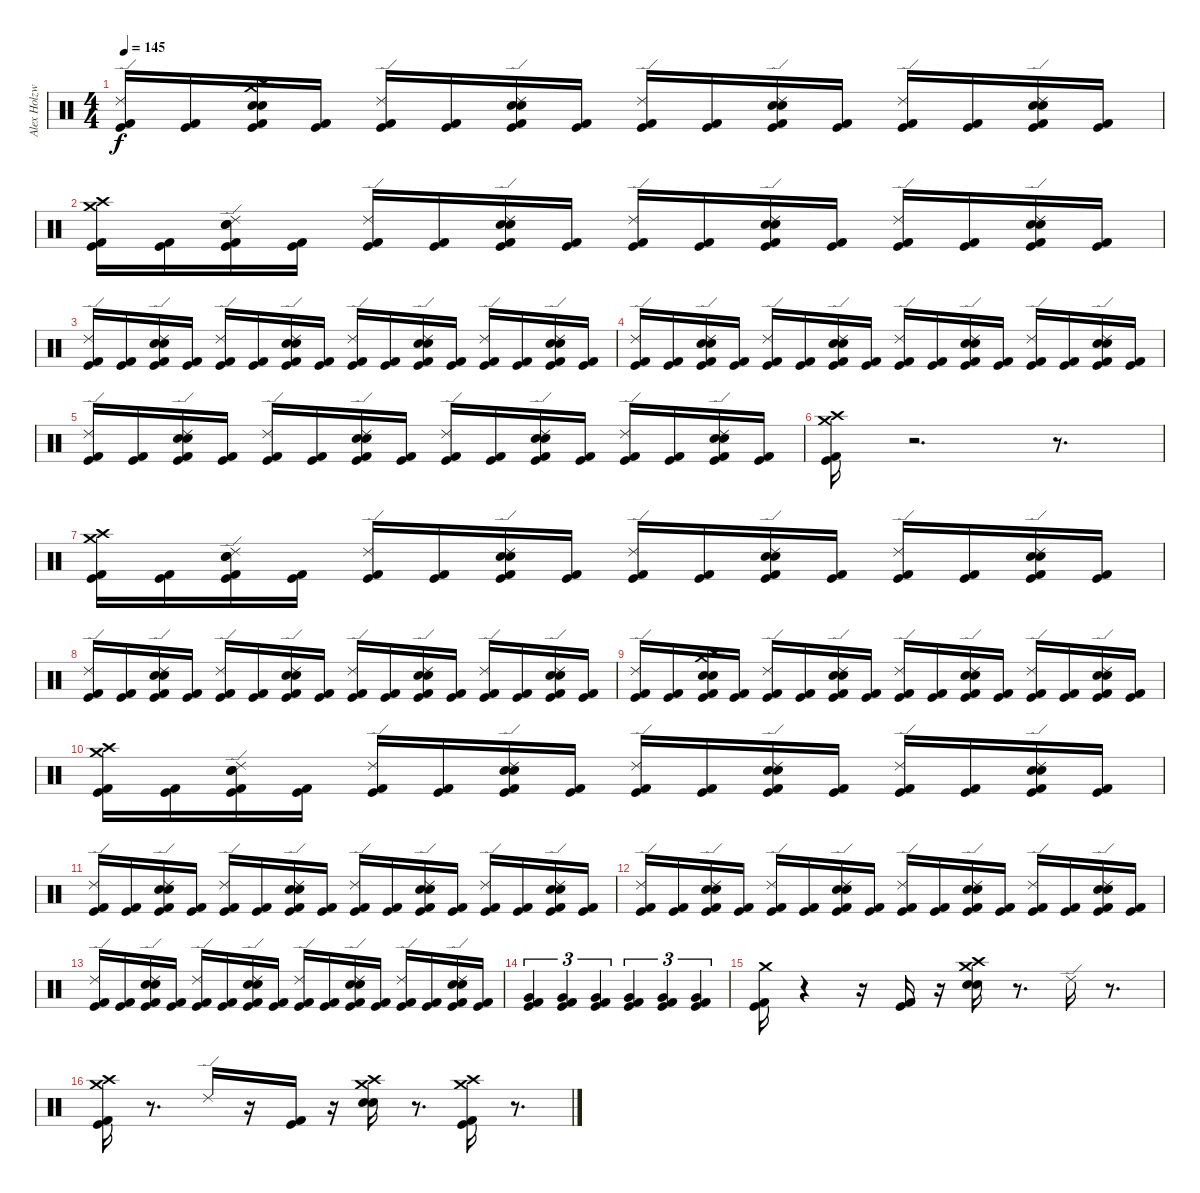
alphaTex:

\track ("Alex Holzwarth" "Alex Holzw") {instrument percussion}
\staff {score}
\articulation defaults
\ts (4 4)
\tempo 145
\clef neutral
\ks c
("Ride (edge) 2" "Kick (hit) 2" "Kick (hit)").16{dy f} ("Kick (hit) 2" "Kick (hit)").16 ("Crash high (hit)" "Crash medium (hit)" "Snare (hit) 2" "Electric Snare (hit)" "Kick (hit) 2" "Kick (hit)").16 ("Kick (hit) 2" "Kick (hit)").16 ("Ride (edge) 2" "Kick (hit) 2" "Kick (hit)").16 ("Kick (hit) 2" "Kick (hit)").16 ("Ride (edge) 2" "Snare (hit) 2" "Electric Snare (hit)" "Kick (hit) 2" "Kick (hit)").16 ("Kick (hit) 2" "Kick (hit)").16 ("Ride (edge) 2" "Kick (hit) 2" "Kick (hit)").16 ("Kick (hit) 2" "Kick (hit)").16 ("Ride (edge) 2" "Snare (hit) 2" "Electric Snare (hit)" "Kick (hit) 2" "Kick (hit)").16 ("Kick (hit) 2" "Kick (hit)").16 ("Ride (edge) 2" "Kick (hit) 2" "Kick (hit)").16 ("Kick (hit) 2" "Kick (hit)").16 ("Ride (edge) 2" "Snare (hit) 2" "Electric Snare (hit)" "Kick (hit) 2" "Kick (hit)").16 ("Kick (hit) 2" "Kick (hit)").16 |
("Crash high (hit)" "Crash medium (hit)" "Kick (hit) 2" "Kick (hit)").16 ("Kick (hit) 2" "Kick (hit)").16 ("Ride (edge) 2" "Snare (hit) 2" "Electric Snare (hit)" "Kick (hit) 2" "Kick (hit)").16 ("Kick (hit) 2" "Kick (hit)").16 ("Ride (edge) 2" "Kick (hit) 2" "Kick (hit)").16 ("Kick (hit) 2" "Kick (hit)").16 ("Ride (edge) 2" "Snare (hit) 2" "Electric Snare (hit)" "Kick (hit) 2" "Kick (hit)").16 ("Kick (hit) 2" "Kick (hit)").16 ("Ride (edge) 2" "Kick (hit) 2" "Kick (hit)").16 ("Kick (hit) 2" "Kick (hit)").16 ("Ride (edge) 2" "Snare (hit) 2" "Electric Snare (hit)" "Kick (hit) 2" "Kick (hit)").16 ("Kick (hit) 2" "Kick (hit)").16 ("Ride (edge) 2" "Kick (hit) 2" "Kick (hit)").16 ("Kick (hit) 2" "Kick (hit)").16 ("Ride (edge) 2" "Snare (hit) 2" "Electric Snare (hit)" "Kick (hit) 2" "Kick (hit)").16 ("Kick (hit) 2" "Kick (hit)").16 |
("Ride (edge) 2" "Kick (hit) 2" "Kick (hit)").16 ("Kick (hit) 2" "Kick (hit)").16 ("Ride (edge) 2" "Snare (hit) 2" "Electric Snare (hit)" "Kick (hit) 2" "Kick (hit)").16 ("Kick (hit) 2" "Kick (hit)").16 ("Ride (edge) 2" "Kick (hit) 2" "Kick (hit)").16 ("Kick (hit) 2" "Kick (hit)").16 ("Ride (edge) 2" "Snare (hit) 2" "Electric Snare (hit)" "Kick (hit) 2" "Kick (hit)").16 ("Kick (hit) 2" "Kick (hit)").16 ("Ride (edge) 2" "Kick (hit) 2" "Kick (hit)").16 ("Kick (hit) 2" "Kick (hit)").16 ("Ride (edge) 2" "Snare (hit) 2" "Electric Snare (hit)" "Kick (hit) 2" "Kick (hit)").16 ("Kick (hit) 2" "Kick (hit)").16 ("Ride (edge) 2" "Kick (hit) 2" "Kick (hit)").16 ("Kick (hit) 2" "Kick (hit)").16 ("Ride (edge) 2" "Snare (hit) 2" "Electric Snare (hit)" "Kick (hit) 2" "Kick (hit)").16 ("Kick (hit) 2" "Kick (hit)").16 |
("Ride (edge) 2" "Kick (hit) 2" "Kick (hit)").16 ("Kick (hit) 2" "Kick (hit)").16 ("Ride (edge) 2" "Snare (hit) 2" "Electric Snare (hit)" "Kick (hit) 2" "Kick (hit)").16 ("Kick (hit) 2" "Kick (hit)").16 ("Ride (edge) 2" "Kick (hit) 2" "Kick (hit)").16 ("Kick (hit) 2" "Kick (hit)").16 ("Ride (edge) 2" "Snare (hit) 2" "Electric Snare (hit)" "Kick (hit) 2" "Kick (hit)").16 ("Kick (hit) 2" "Kick (hit)").16 ("Ride (edge) 2" "Kick (hit) 2" "Kick (hit)").16 ("Kick (hit) 2" "Kick (hit)").16 ("Ride (edge) 2" "Snare (hit) 2" "Electric Snare (hit)" "Kick (hit) 2" "Kick (hit)").16 ("Kick (hit) 2" "Kick (hit)").16 ("Ride (edge) 2" "Kick (hit) 2" "Kick (hit)").16 ("Kick (hit) 2" "Kick (hit)").16 ("Ride (edge) 2" "Snare (hit) 2" "Electric Snare (hit)" "Kick (hit) 2" "Kick (hit)").16 ("Kick (hit) 2" "Kick (hit)").16 |
("Ride (edge) 2" "Kick (hit) 2" "Kick (hit)").16 ("Kick (hit) 2" "Kick (hit)").16 ("Ride (edge) 2" "Snare (hit) 2" "Electric Snare (hit)" "Kick (hit) 2" "Kick (hit)").16 ("Kick (hit) 2" "Kick (hit)").16 ("Ride (edge) 2" "Kick (hit) 2" "Kick (hit)").16 ("Kick (hit) 2" "Kick (hit)").16 ("Ride (edge) 2" "Snare (hit) 2" "Electric Snare (hit)" "Kick (hit) 2" "Kick (hit)").16 ("Kick (hit) 2" "Kick (hit)").16 ("Ride (edge) 2" "Kick (hit) 2" "Kick (hit)").16 ("Kick (hit) 2" "Kick (hit)").16 ("Ride (edge) 2" "Snare (hit) 2" "Electric Snare (hit)" "Kick (hit) 2" "Kick (hit)").16 ("Kick (hit) 2" "Kick (hit)").16 ("Ride (edge) 2" "Kick (hit) 2" "Kick (hit)").16 ("Kick (hit) 2" "Kick (hit)").16 ("Ride (edge) 2" "Snare (hit) 2" "Electric Snare (hit)" "Kick (hit) 2" "Kick (hit)").16 ("Kick (hit) 2" "Kick (hit)").16 |
("Crash high (hit)" "Crash medium (hit)" "Kick (hit) 2" "Kick (hit)").16 r.2{d} r.8{d} |
("Crash medium (hit)" "Crash high (hit)" "Kick (hit) 2" "Kick (hit)").16 ("Kick (hit) 2" "Kick (hit)").16 ("Ride (edge) 2" "Snare (hit) 2" "Electric Snare (hit)" "Kick (hit) 2" "Kick (hit)").16 ("Kick (hit) 2" "Kick (hit)").16 ("Ride (edge) 2" "Kick (hit) 2" "Kick (hit)").16 ("Kick (hit) 2" "Kick (hit)").16 ("Ride (edge) 2" "Snare (hit) 2" "Electric Snare (hit)" "Kick (hit) 2" "Kick (hit)").16 ("Kick (hit) 2" "Kick (hit)").16 ("Ride (edge) 2" "Kick (hit) 2" "Kick (hit)").16 ("Kick (hit) 2" "Kick (hit)").16 ("Ride (edge) 2" "Snare (hit) 2" "Electric Snare (hit)" "Kick (hit) 2" "Kick (hit)").16 ("Kick (hit) 2" "Kick (hit)").16 ("Ride (edge) 2" "Kick (hit) 2" "Kick (hit)").16 ("Kick (hit) 2" "Kick (hit)").16 ("Ride (edge) 2" "Snare (hit) 2" "Electric Snare (hit)" "Kick (hit) 2" "Kick (hit)").16 ("Kick (hit) 2" "Kick (hit)").16 |
("Ride (edge) 2" "Kick (hit) 2" "Kick (hit)").16 ("Kick (hit) 2" "Kick (hit)").16 ("Ride (edge) 2" "Snare (hit) 2" "Electric Snare (hit)" "Kick (hit) 2" "Kick (hit)").16 ("Kick (hit) 2" "Kick (hit)").16 ("Ride (edge) 2" "Kick (hit) 2" "Kick (hit)").16 ("Kick (hit) 2" "Kick (hit)").16 ("Ride (edge) 2" "Snare (hit) 2" "Electric Snare (hit)" "Kick (hit) 2" "Kick (hit)").16 ("Kick (hit) 2" "Kick (hit)").16 ("Ride (edge) 2" "Kick (hit) 2" "Kick (hit)").16 ("Kick (hit) 2" "Kick (hit)").16 ("Ride (edge) 2" "Snare (hit) 2" "Electric Snare (hit)" "Kick (hit) 2" "Kick (hit)").16 ("Kick (hit) 2" "Kick (hit)").16 ("Ride (edge) 2" "Kick (hit) 2" "Kick (hit)").16 ("Kick (hit) 2" "Kick (hit)").16 ("Ride (edge) 2" "Snare (hit) 2" "Electric Snare (hit)" "Kick (hit) 2" "Kick (hit)").16 ("Kick (hit) 2" "Kick (hit)").16 |
("Ride (edge) 2" "Kick (hit) 2" "Kick (hit)").16 ("Kick (hit) 2" "Kick (hit)").16 ("Crash high (hit)" "Crash medium (hit)" "Snare (hit) 2" "Electric Snare (hit)" "Kick (hit) 2" "Kick (hit)").16 ("Kick (hit) 2" "Kick (hit)").16 ("Ride (edge) 2" "Kick (hit) 2" "Kick (hit)").16 ("Kick (hit) 2" "Kick (hit)").16 ("Ride (edge) 2" "Snare (hit) 2" "Electric Snare (hit)" "Kick (hit) 2" "Kick (hit)").16 ("Kick (hit) 2" "Kick (hit)").16 ("Ride (edge) 2" "Kick (hit) 2" "Kick (hit)").16 ("Kick (hit) 2" "Kick (hit)").16 ("Ride (edge) 2" "Snare (hit) 2" "Electric Snare (hit)" "Kick (hit) 2" "Kick (hit)").16 ("Kick (hit) 2" "Kick (hit)").16 ("Ride (edge) 2" "Kick (hit) 2" "Kick (hit)").16 ("Kick (hit) 2" "Kick (hit)").16 ("Ride (edge) 2" "Snare (hit) 2" "Electric Snare (hit)" "Kick (hit) 2" "Kick (hit)").16 ("Kick (hit) 2" "Kick (hit)").16 |
("Crash high (hit)" "Crash medium (hit)" "Kick (hit) 2" "Kick (hit)").16 ("Kick (hit) 2" "Kick (hit)").16 ("Ride (edge) 2" "Snare (hit) 2" "Electric Snare (hit)" "Kick (hit) 2" "Kick (hit)").16 ("Kick (hit) 2" "Kick (hit)").16 ("Ride (edge) 2" "Kick (hit) 2" "Kick (hit)").16 ("Kick (hit) 2" "Kick (hit)").16 ("Ride (edge) 2" "Snare (hit) 2" "Electric Snare (hit)" "Kick (hit) 2" "Kick (hit)").16 ("Kick (hit) 2" "Kick (hit)").16 ("Ride (edge) 2" "Kick (hit) 2" "Kick (hit)").16 ("Kick (hit) 2" "Kick (hit)").16 ("Ride (edge) 2" "Snare (hit) 2" "Electric Snare (hit)" "Kick (hit) 2" "Kick (hit)").16 ("Kick (hit) 2" "Kick (hit)").16 ("Ride (edge) 2" "Kick (hit) 2" "Kick (hit)").16 ("Kick (hit) 2" "Kick (hit)").16 ("Ride (edge) 2" "Snare (hit) 2" "Electric Snare (hit)" "Kick (hit) 2" "Kick (hit)").16 ("Kick (hit) 2" "Kick (hit)").16 |
("Ride (edge) 2" "Kick (hit) 2" "Kick (hit)").16 ("Kick (hit) 2" "Kick (hit)").16 ("Ride (edge) 2" "Snare (hit) 2" "Electric Snare (hit)" "Kick (hit) 2" "Kick (hit)").16 ("Kick (hit) 2" "Kick (hit)").16 ("Ride (edge) 2" "Kick (hit) 2" "Kick (hit)").16 ("Kick (hit) 2" "Kick (hit)").16 ("Ride (edge) 2" "Snare (hit) 2" "Electric Snare (hit)" "Kick (hit) 2" "Kick (hit)").16 ("Kick (hit) 2" "Kick (hit)").16 ("Ride (edge) 2" "Kick (hit) 2" "Kick (hit)").16 ("Kick (hit) 2" "Kick (hit)").16 ("Ride (edge) 2" "Snare (hit) 2" "Electric Snare (hit)" "Kick (hit) 2" "Kick (hit)").16 ("Kick (hit) 2" "Kick (hit)").16 ("Ride (edge) 2" "Kick (hit) 2" "Kick (hit)").16 ("Kick (hit) 2" "Kick (hit)").16 ("Ride (edge) 2" "Snare (hit) 2" "Electric Snare (hit)" "Kick (hit) 2" "Kick (hit)").16 ("Kick (hit) 2" "Kick (hit)").16 |
("Ride (edge) 2" "Kick (hit) 2" "Kick (hit)").16 ("Kick (hit) 2" "Kick (hit)").16 ("Ride (edge) 2" "Snare (hit) 2" "Electric Snare (hit)" "Kick (hit) 2" "Kick (hit)").16 ("Kick (hit) 2" "Kick (hit)").16 ("Ride (edge) 2" "Kick (hit) 2" "Kick (hit)").16 ("Kick (hit) 2" "Kick (hit)").16 ("Ride (edge) 2" "Snare (hit) 2" "Electric Snare (hit)" "Kick (hit) 2" "Kick (hit)").16 ("Kick (hit) 2" "Kick (hit)").16 ("Ride (edge) 2" "Kick (hit) 2" "Kick (hit)").16 ("Kick (hit) 2" "Kick (hit)").16 ("Ride (edge) 2" "Snare (hit) 2" "Electric Snare (hit)" "Kick (hit) 2" "Kick (hit)").16 ("Kick (hit) 2" "Kick (hit)").16 ("Ride (edge) 2" "Kick (hit) 2" "Kick (hit)").16 ("Kick (hit) 2" "Kick (hit)").16 ("Ride (edge) 2" "Snare (hit) 2" "Electric Snare (hit)" "Kick (hit) 2" "Kick (hit)").16 ("Kick (hit) 2" "Kick (hit)").16 |
("Ride (edge) 2" "Kick (hit) 2" "Kick (hit)").16 ("Kick (hit) 2" "Kick (hit)").16 ("Ride (edge) 2" "Snare (hit) 2" "Electric Snare (hit)" "Kick (hit) 2" "Kick (hit)").16 ("Kick (hit) 2" "Kick (hit)").16 ("Ride (edge) 2" "Kick (hit) 2" "Kick (hit)").16 ("Kick (hit) 2" "Kick (hit)").16 ("Ride (edge) 2" "Snare (hit) 2" "Electric Snare (hit)" "Kick (hit) 2" "Kick (hit)").16 ("Kick (hit) 2" "Kick (hit)").16 ("Ride (edge) 2" "Kick (hit) 2" "Kick (hit)").16 ("Kick (hit) 2" "Kick (hit)").16 ("Ride (edge) 2" "Snare (hit) 2" "Electric Snare (hit)" "Kick (hit) 2" "Kick (hit)").16 ("Kick (hit) 2" "Kick (hit)").16 ("Ride (edge) 2" "Kick (hit) 2" "Kick (hit)").16 ("Kick (hit) 2" "Kick (hit)").16 ("Ride (edge) 2" "Snare (hit) 2" "Electric Snare (hit)" "Kick (hit) 2" "Kick (hit)").16 ("Kick (hit) 2" "Kick (hit)").16 |
("Very Low Tom (hit)" "Kick (hit) 2" "Kick (hit)").4{tu (3 2)} ("Very Low Tom (hit)" "Kick (hit) 2" "Kick (hit)").4{tu (3 2)} ("Very Low Tom (hit)" "Kick (hit) 2" "Kick (hit)").4{tu (3 2)} ("Very Low Tom (hit)" "Kick (hit) 2" "Kick (hit)").4{tu (3 2)} ("Very Low Tom (hit)" "Kick (hit) 2" "Kick (hit)").4{tu (3 2)} ("Very Low Tom (hit)" "Kick (hit) 2" "Kick (hit)").4{tu (3 2)} |
("Crash medium (hit)" "Kick (hit) 2" "Kick (hit)").16 r.4 r.16 ("Kick (hit) 2" "Kick (hit)").16 r.16 ("Crash high (hit)" "Crash medium (hit)" "Electric Snare (hit)" "Snare (hit) 2").16 r.8{d} "Ride (edge) 2".16 r.8{d} |
("Crash high (hit)" "Crash medium (hit)" "Kick (hit) 2" "Kick (hit)").16 r.8{d} "Ride (edge) 2".16 r.16 ("Kick (hit) 2" "Kick (hit)").16 r.16 ("Crash medium (hit)" "Crash high (hit)" "Electric Snare (hit)" "Snare (hit) 2").16 r.8{d} ("Crash high (hit)" "Crash medium (hit)" "Kick (hit) 2" "Kick (hit)").16 r.8{d}
